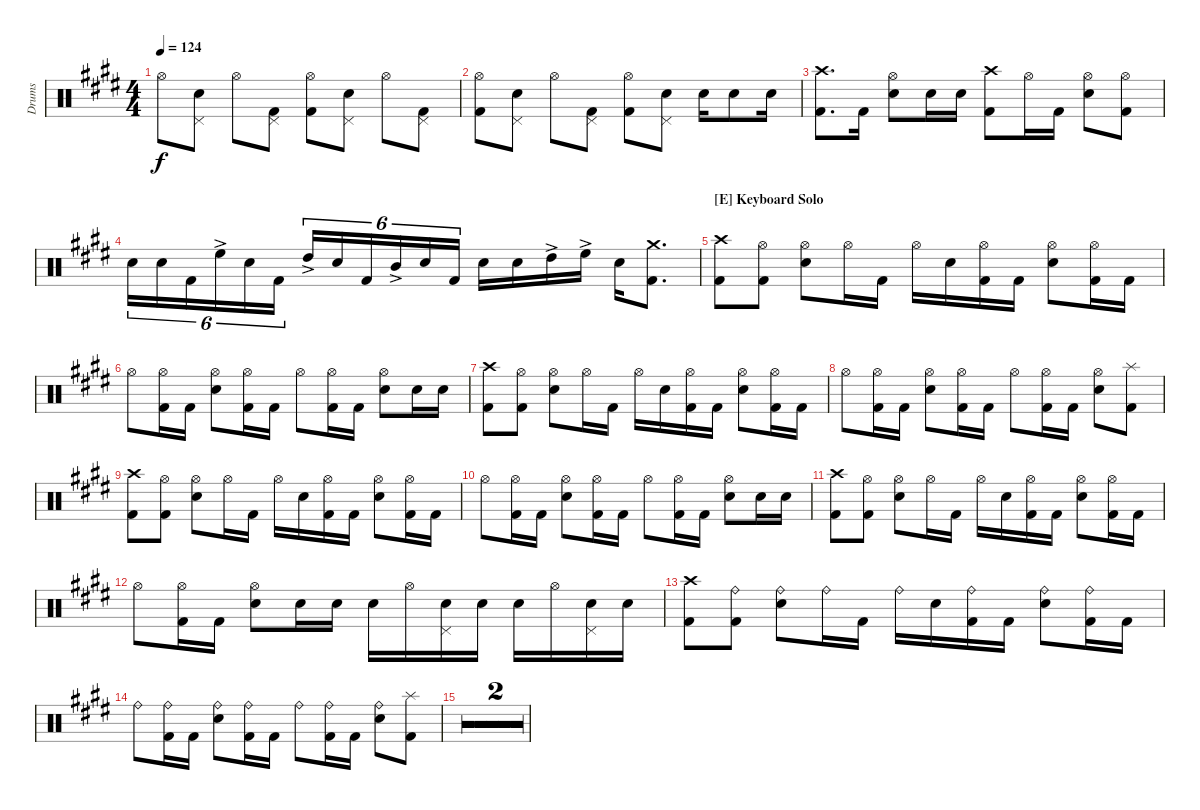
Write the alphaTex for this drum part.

\defaultSystemsLayout 4
\bracketExtendMode groupsimilarinstruments
\otherSystemsTrackNameOrientation horizontal
\track ("Drumkit" "Drums") {multiBarRest instrument percussion}
\staff {score}
\articulation defaults
\ts (4 4)
\tempo 124
\clef neutral
\ks c#minor "Hi-Hat (open)"{acc forcenatural}.8{dy f}
("Snare (hit) 2"{acc forcenatural} "Pedal Hi-Hat (hit)"{acc forcenatural}).8 "Hi-Hat (open)"{acc forcenatural}.8 ("Kick (hit) 2"{acc forcenatural} "Pedal Hi-Hat (hit)"{acc forcenatural}).8 ("Hi-Hat (open)"{acc forcenatural} "Kick (hit) 2"{acc forcenatural}).8 ("Snare (hit) 2"{acc forcenatural} "Pedal Hi-Hat (hit)"{acc forcenatural}).8 "Hi-Hat (open)"{acc forcenatural}.8 ("Kick (hit) 2"{acc forcenatural} "Pedal Hi-Hat (hit)"{acc forcenatural}).8 |
("Kick (hit) 2"{acc forcenatural} "Hi-Hat (open)"{acc forcenatural}).8 ("Pedal Hi-Hat (hit)"{acc forcenatural} "Snare (hit) 2"{acc forcenatural}).8 "Hi-Hat (open)"{acc forcenatural}.8 ("Kick (hit) 2"{acc forcenatural} "Pedal Hi-Hat (hit)"{acc forcenatural}).8 ("Kick (hit) 2"{acc forcenatural} "Hi-Hat (open)"{acc forcenatural}).8 ("Pedal Hi-Hat (hit)"{acc forcenatural} "Snare (hit) 2"{acc forcenatural}).8 "Snare (hit) 2"{acc forcenatural}.16 "Snare (hit) 2"{acc forcenatural}.8 "Snare (hit) 2"{acc forcenatural}.16 |
("Crash high (hit)"{acc forcenatural} "Kick (hit) 2"{acc forcenatural}).8{d} "Kick (hit) 2"{acc forcenatural}.16 ("Snare (hit) 2"{acc forcenatural} "Hi-Hat (open)"{acc forcenatural}).8 "Snare (hit) 2"{acc forcenatural}.16 "Snare (hit) 2"{acc forcenatural}.16 ("Crash high (hit)"{acc forcenatural} "Kick (hit) 2"{acc forcenatural}).8 "Hi-Hat (open)"{acc forcenatural}.16 "Kick (hit) 2"{acc forcenatural}.16 ("Snare (hit) 2"{acc forcenatural} "Hi-Hat (open)"{acc forcenatural}).8 ("Hi-Hat (open)"{acc forcenatural} "Kick (hit) 2"{acc forcenatural}).8 |
"Snare (hit) 2"{acc forcenatural}.16{tu (6 4)} "Snare (hit) 2"{acc forcenatural}.16{tu (6 4)} "Kick (hit) 2"{acc forcenatural}.16{tu (6 4)} "High Floor Tom (hit)"{ac acc forcenatural}.16{tu (6 4)} "Snare (hit) 2"{acc forcenatural}.16{tu (6 4)} "Kick (hit) 2"{acc forcenatural}.16{tu (6 4)} "High Tom (hit)"{ac acc forcenatural}.16{tu (6 4)} "Snare (hit) 2"{acc forcenatural}.16{tu (6 4)} "Kick (hit) 2"{acc forcenatural}.16{tu (6 4)} "Mid Tom (hit)"{ac acc forcenatural}.16{tu (6 4)} "Snare (hit) 2"{acc forcenatural}.16{tu (6 4)} "Kick (hit) 2"{acc forcenatural}.16{tu (6 4)} "Snare (hit) 2"{acc forcenatural}.16 "Snare (hit) 2"{acc forcenatural}.16 "High Tom (hit)"{ac acc forcenatural}.16 "High Floor Tom (hit)"{ac acc forcenatural}.16 "Snare (hit) 2"{acc forcenatural}.16 ("Crash medium (hit)"{acc forcenatural} "Kick (hit) 2"{acc forcenatural}).8{d} |
\section ("E" "Keyboard Solo")
("Kick (hit) 2"{acc forcenatural} "Crash high (hit)"{acc forcenatural}).8 ("Kick (hit) 2"{acc forcenatural} "Hi-Hat (open)"{acc forcenatural}).8 ("Hi-Hat (open)"{acc forcenatural} "Snare (hit) 2"{acc forcenatural}).8 "Hi-Hat (open)"{acc forcenatural}.16 "Kick (hit) 2"{acc forcenatural}.16 "Hi-Hat (open)"{acc forcenatural}.16 "Snare (hit) 2"{acc forcenatural}.16 ("Kick (hit) 2"{acc forcenatural} "Hi-Hat (open)"{acc forcenatural}).16 "Kick (hit) 2"{acc forcenatural}.16 ("Hi-Hat (open)"{acc forcenatural} "Snare (hit) 2"{acc forcenatural}).8 ("Kick (hit) 2"{acc forcenatural} "Hi-Hat (open)"{acc forcenatural}).16 "Kick (hit) 2"{acc forcenatural}.16 |
"Hi-Hat (open)"{acc forcenatural}.8 ("Kick (hit) 2"{acc forcenatural} "Hi-Hat (open)"{acc forcenatural}).16 "Kick (hit) 2"{acc forcenatural}.16 ("Hi-Hat (open)"{acc forcenatural} "Snare (hit) 2"{acc forcenatural}).8 ("Kick (hit) 2"{acc forcenatural} "Hi-Hat (open)"{acc forcenatural}).16 "Kick (hit) 2"{acc forcenatural}.16 "Hi-Hat (open)"{acc forcenatural}.8 ("Kick (hit) 2"{acc forcenatural} "Hi-Hat (open)"{acc forcenatural}).16 "Kick (hit) 2"{acc forcenatural}.16 ("Hi-Hat (open)"{acc forcenatural} "Snare (hit) 2"{acc forcenatural}).8 "Snare (hit) 2"{acc forcenatural}.16 "Snare (hit) 2"{acc forcenatural}.16 |
("Kick (hit) 2"{acc forcenatural} "Crash high (hit)"{acc forcenatural}).8 ("Kick (hit) 2"{acc forcenatural} "Hi-Hat (open)"{acc forcenatural}).8 ("Hi-Hat (open)"{acc forcenatural} "Snare (hit) 2"{acc forcenatural}).8 "Hi-Hat (open)"{acc forcenatural}.16 "Kick (hit) 2"{acc forcenatural}.16 "Hi-Hat (open)"{acc forcenatural}.16 "Snare (hit) 2"{acc forcenatural}.16 ("Kick (hit) 2"{acc forcenatural} "Hi-Hat (open)"{acc forcenatural}).16 "Kick (hit) 2"{acc forcenatural}.16 ("Hi-Hat (open)"{acc forcenatural} "Snare (hit) 2"{acc forcenatural}).8 ("Kick (hit) 2"{acc forcenatural} "Hi-Hat (open)"{acc forcenatural}).16 "Kick (hit) 2"{acc forcenatural}.16 |
"Hi-Hat (open)"{acc forcenatural}.8 ("Kick (hit) 2"{acc forcenatural} "Hi-Hat (open)"{acc forcenatural}).16 "Kick (hit) 2"{acc forcenatural}.16 ("Hi-Hat (open)"{acc forcenatural} "Snare (hit) 2"{acc forcenatural}).8 ("Kick (hit) 2"{acc forcenatural} "Hi-Hat (open)"{acc forcenatural}).16 "Kick (hit) 2"{acc forcenatural}.16 "Hi-Hat (open)"{acc forcenatural}.8 ("Kick (hit) 2"{acc forcenatural} "Hi-Hat (open)"{acc forcenatural}).16 "Kick (hit) 2"{acc forcenatural}.16 ("Hi-Hat (open)"{acc forcenatural} "Snare (hit) 2"{acc forcenatural}).8 ("Splash (hit)"{acc forcenatural} "Kick (hit) 2"{acc forcenatural}).8 |
("Kick (hit) 2"{acc forcenatural} "Crash high (hit)"{acc forcenatural}).8 ("Kick (hit) 2"{acc forcenatural} "Hi-Hat (open)"{acc forcenatural}).8 ("Hi-Hat (open)"{acc forcenatural} "Snare (hit) 2"{acc forcenatural}).8 "Hi-Hat (open)"{acc forcenatural}.16 "Kick (hit) 2"{acc forcenatural}.16 "Hi-Hat (open)"{acc forcenatural}.16 "Snare (hit) 2"{acc forcenatural}.16 ("Kick (hit) 2"{acc forcenatural} "Hi-Hat (open)"{acc forcenatural}).16 "Kick (hit) 2"{acc forcenatural}.16 ("Hi-Hat (open)"{acc forcenatural} "Snare (hit) 2"{acc forcenatural}).8 ("Kick (hit) 2"{acc forcenatural} "Hi-Hat (open)"{acc forcenatural}).16 "Kick (hit) 2"{acc forcenatural}.16 |
"Hi-Hat (open)"{acc forcenatural}.8 ("Kick (hit) 2"{acc forcenatural} "Hi-Hat (open)"{acc forcenatural}).16 "Kick (hit) 2"{acc forcenatural}.16 ("Hi-Hat (open)"{acc forcenatural} "Snare (hit) 2"{acc forcenatural}).8 ("Kick (hit) 2"{acc forcenatural} "Hi-Hat (open)"{acc forcenatural}).16 "Kick (hit) 2"{acc forcenatural}.16 "Hi-Hat (open)"{acc forcenatural}.8 ("Kick (hit) 2"{acc forcenatural} "Hi-Hat (open)"{acc forcenatural}).16 "Kick (hit) 2"{acc forcenatural}.16 ("Hi-Hat (open)"{acc forcenatural} "Snare (hit) 2"{acc forcenatural}).8 "Snare (hit) 2"{acc forcenatural}.16 "Snare (hit) 2"{acc forcenatural}.16 |
("Kick (hit) 2"{acc forcenatural} "Crash high (hit)"{acc forcenatural}).8 ("Kick (hit) 2"{acc forcenatural} "Hi-Hat (open)"{acc forcenatural}).8 ("Hi-Hat (open)"{acc forcenatural} "Snare (hit) 2"{acc forcenatural}).8 "Hi-Hat (open)"{acc forcenatural}.16 "Kick (hit) 2"{acc forcenatural}.16 "Hi-Hat (open)"{acc forcenatural}.16 "Snare (hit) 2"{acc forcenatural}.16 ("Kick (hit) 2"{acc forcenatural} "Hi-Hat (open)"{acc forcenatural}).16 "Kick (hit) 2"{acc forcenatural}.16 ("Hi-Hat (open)"{acc forcenatural} "Snare (hit) 2"{acc forcenatural}).8 ("Kick (hit) 2"{acc forcenatural} "Hi-Hat (open)"{acc forcenatural}).16 "Kick (hit) 2"{acc forcenatural}.16 |
"Hi-Hat (open)"{acc forcenatural}.8 ("Kick (hit) 2"{acc forcenatural} "Hi-Hat (open)"{acc forcenatural}).16 "Kick (hit) 2"{acc forcenatural}.16 ("Hi-Hat (open)"{acc forcenatural} "Snare (hit) 2"{acc forcenatural}).8 "Snare (hit) 2"{acc forcenatural}.16 "Snare (hit) 2"{acc forcenatural}.16 "Snare (hit) 2"{acc forcenatural}.16 "Hi-Hat (open)"{acc forcenatural}.16 ("Snare (hit) 2"{acc forcenatural} "Pedal Hi-Hat (hit)"{acc forcenatural}).16 "Snare (hit) 2"{acc forcenatural}.16 "Snare (hit) 2"{acc forcenatural}.16 "Hi-Hat (open)"{acc forcenatural}.16 ("Snare (hit) 2"{acc forcenatural} "Pedal Hi-Hat (hit)"{acc forcenatural}).16 "Snare (hit) 2"{acc forcenatural}.16 |
("Kick (hit) 2"{acc forcenatural} "Crash high (hit)"{acc forcenatural}).8 ("Kick (hit) 2"{acc forcenatural} "Ride (bell)"{acc forcenatural}).8 ("Snare (hit) 2"{acc forcenatural} "Ride (bell)"{acc forcenatural}).8 "Ride (bell)"{acc forcenatural}.16 "Kick (hit) 2"{acc forcenatural}.16 "Ride (bell)"{acc forcenatural}.16 "Snare (hit) 2"{acc forcenatural}.16 ("Kick (hit) 2"{acc forcenatural} "Ride (bell)"{acc forcenatural}).16 "Kick (hit) 2"{acc forcenatural}.16 ("Snare (hit) 2"{acc forcenatural} "Ride (bell)"{acc forcenatural}).8 ("Kick (hit) 2"{acc forcenatural} "Ride (bell)"{acc forcenatural}).16 "Kick (hit) 2"{acc forcenatural}.16 |
"Ride (bell)"{acc forcenatural}.8 ("Kick (hit) 2"{acc forcenatural} "Ride (bell)"{acc forcenatural}).16 "Kick (hit) 2"{acc forcenatural}.16 ("Snare (hit) 2"{acc forcenatural} "Ride (bell)"{acc forcenatural}).8 ("Kick (hit) 2"{acc forcenatural} "Ride (bell)"{acc forcenatural}).16 "Kick (hit) 2"{acc forcenatural}.16 "Ride (bell)"{acc forcenatural}.8 ("Kick (hit) 2"{acc forcenatural} "Ride (bell)"{acc forcenatural}).16 "Kick (hit) 2"{acc forcenatural}.16 ("Snare (hit) 2"{acc forcenatural} "Ride (bell)"{acc forcenatural}).8 ("Splash (hit)"{acc forcenatural} "Kick (hit) 2"{acc forcenatural}).8 |
\simile firstofdouble
|
\simile secondofdouble
